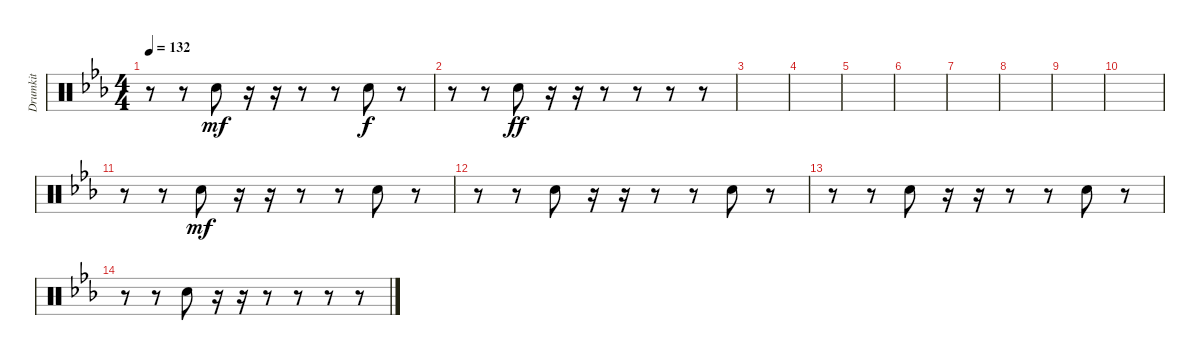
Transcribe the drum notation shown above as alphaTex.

\track ("Drumkit" "Drumkit") {instrument percussion}
\staff {score}
\articulation defaults
\ts (4 4)
\tempo 132
\clef neutral
\ks eb
r.8{dy mf} r.8 "Snare (hit) 2".8 r.16 r.16 r.8 r.8 "Snare (hit) 2".8{dy f} r.8 |
r.8 r.8 "Snare (hit) 2".8{dy ff} r.16 r.16 r.8 r.8 r.8 r.8 |
|
|
|
|
|
|
|
|
r.8 r.8 "Snare (hit) 2".8{dy mf} r.16 r.16 r.8 r.8 "Snare (hit) 2".8 r.8 |
r.8 r.8 "Snare (hit) 2".8 r.16 r.16 r.8 r.8 "Snare (hit) 2".8 r.8 |
r.8 r.8 "Snare (hit) 2".8 r.16 r.16 r.8 r.8 "Snare (hit) 2".8 r.8 |
r.8 r.8 "Snare (hit) 2".8 r.16 r.16 r.8 r.8 r.8 r.8
